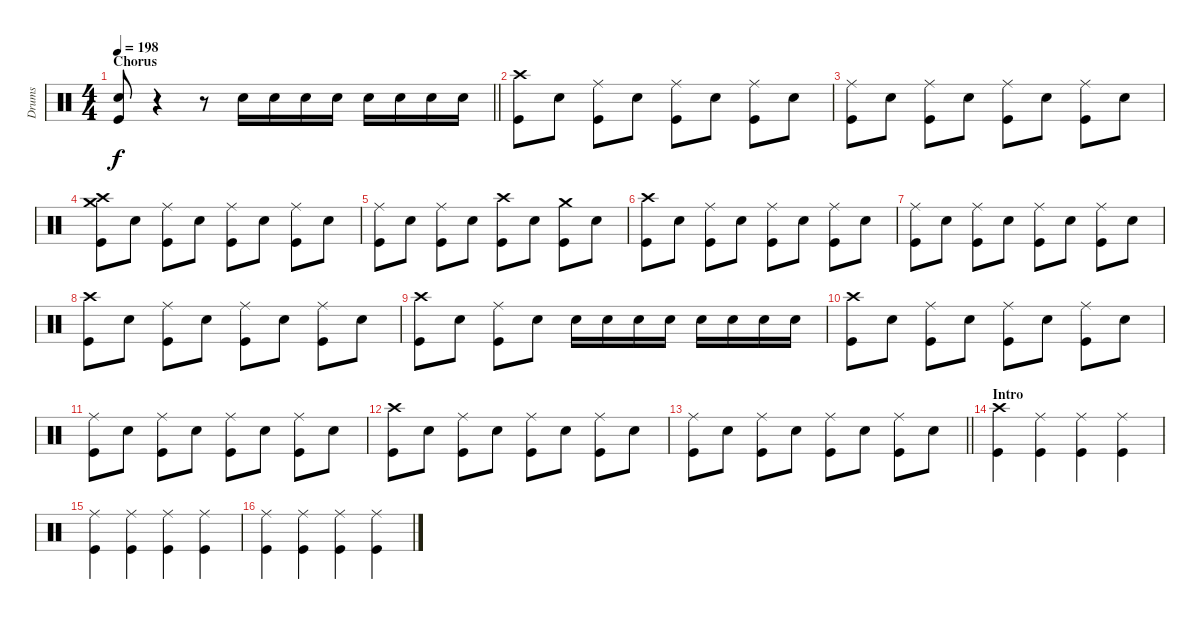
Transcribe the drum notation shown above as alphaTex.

\track ("Drums" "Drums") {instrument percussion}
\staff {score}
\articulation defaults
\ts (4 4)
\section ("" "Chorus")
\tempo 198
\clef neutral
\barLineRight lightlight
\ks c
("Electric Snare (hit)" "Kick (hit)").8{dy f} r.4 r.8 "Electric Snare (hit)".16 "Electric Snare (hit)".16 "Electric Snare (hit)".16 "Electric Snare (hit)".16 "Electric Snare (hit)".16 "Electric Snare (hit)".16 "Electric Snare (hit)".16 "Electric Snare (hit)".16 |
\section ("" "")
("Crash high (hit)" "Kick (hit)").8 "Electric Snare (hit)".8 ("Ride (middle)" "Kick (hit)").8 "Electric Snare (hit)".8 ("Ride (middle)" "Kick (hit)").8 "Electric Snare (hit)".8 ("Ride (middle)" "Kick (hit)").8 "Electric Snare (hit)".8 |
("Ride (middle)" "Kick (hit)").8 "Electric Snare (hit)".8 ("Ride (middle)" "Kick (hit)").8 "Electric Snare (hit)".8 ("Ride (middle)" "Kick (hit)").8 "Electric Snare (hit)".8 ("Ride (middle)" "Kick (hit)").8 "Electric Snare (hit)".8 |
("Crash high (hit)" "Crash medium (hit)" "Kick (hit)").8 "Electric Snare (hit)".8 ("Ride (middle)" "Kick (hit)").8 "Electric Snare (hit)".8 ("Ride (middle)" "Kick (hit)").8 "Electric Snare (hit)".8 ("Ride (middle)" "Kick (hit)").8 "Electric Snare (hit)".8 |
("Ride (middle)" "Kick (hit)").8 "Electric Snare (hit)".8 ("Ride (middle)" "Kick (hit)").8 "Electric Snare (hit)".8 ("Crash high (hit)" "Kick (hit)").8 "Electric Snare (hit)".8 ("Crash medium (hit)" "Kick (hit)").8 "Electric Snare (hit)".8 |
("Crash high (hit)" "Kick (hit)").8 "Electric Snare (hit)".8 ("Ride (middle)" "Kick (hit)").8 "Electric Snare (hit)".8 ("Ride (middle)" "Kick (hit)").8 "Electric Snare (hit)".8 ("Ride (middle)" "Kick (hit)").8 "Electric Snare (hit)".8 |
("Ride (middle)" "Kick (hit)").8 "Electric Snare (hit)".8 ("Ride (middle)" "Kick (hit)").8 "Electric Snare (hit)".8 ("Ride (middle)" "Kick (hit)").8 "Electric Snare (hit)".8 ("Ride (middle)" "Kick (hit)").8 "Electric Snare (hit)".8 |
("Crash high (hit)" "Kick (hit)").8 "Electric Snare (hit)".8 ("Ride (middle)" "Kick (hit)").8 "Electric Snare (hit)".8 ("Ride (middle)" "Kick (hit)").8 "Electric Snare (hit)".8 ("Ride (middle)" "Kick (hit)").8 "Electric Snare (hit)".8 |
("Crash high (hit)" "Kick (hit)").8 "Electric Snare (hit)".8 ("Ride (middle)" "Kick (hit)").8 "Electric Snare (hit)".8 "Electric Snare (hit)".16 "Electric Snare (hit)".16 "Electric Snare (hit)".16 "Electric Snare (hit)".16 "Electric Snare (hit)".16 "Electric Snare (hit)".16 "Electric Snare (hit)".16 "Electric Snare (hit)".16 |
("Crash high (hit)" "Kick (hit)").8 "Electric Snare (hit)".8 ("Ride (middle)" "Kick (hit)").8 "Electric Snare (hit)".8 ("Ride (middle)" "Kick (hit)").8 "Electric Snare (hit)".8 ("Ride (middle)" "Kick (hit)").8 "Electric Snare (hit)".8 |
("Ride (middle)" "Kick (hit)").8 "Electric Snare (hit)".8 ("Ride (middle)" "Kick (hit)").8 "Electric Snare (hit)".8 ("Ride (middle)" "Kick (hit)").8 "Electric Snare (hit)".8 ("Ride (middle)" "Kick (hit)").8 "Electric Snare (hit)".8 |
("Crash high (hit)" "Kick (hit)").8 "Electric Snare (hit)".8 ("Ride (middle)" "Kick (hit)").8 "Electric Snare (hit)".8 ("Ride (middle)" "Kick (hit)").8 "Electric Snare (hit)".8 ("Ride (middle)" "Kick (hit)").8 "Electric Snare (hit)".8 |
\barLineRight lightlight
("Ride (middle)" "Kick (hit)").8 "Electric Snare (hit)".8 ("Ride (middle)" "Kick (hit)").8 "Electric Snare (hit)".8 ("Ride (middle)" "Kick (hit)").8 "Electric Snare (hit)".8 ("Ride (middle)" "Kick (hit)").8 "Electric Snare (hit)".8 |
\section ("" "Intro")
("Crash high (hit)" "Kick (hit)").4 ("Ride (middle)" "Kick (hit)").4 ("Ride (middle)" "Kick (hit)").4 ("Ride (middle)" "Kick (hit)").4 |
("Ride (middle)" "Kick (hit)").4 ("Ride (middle)" "Kick (hit)").4 ("Ride (middle)" "Kick (hit)").4 ("Ride (middle)" "Kick (hit)").4 |
("Ride (middle)" "Kick (hit)").4 ("Ride (middle)" "Kick (hit)").4 ("Ride (middle)" "Kick (hit)").4 ("Ride (middle)" "Kick (hit)").4
